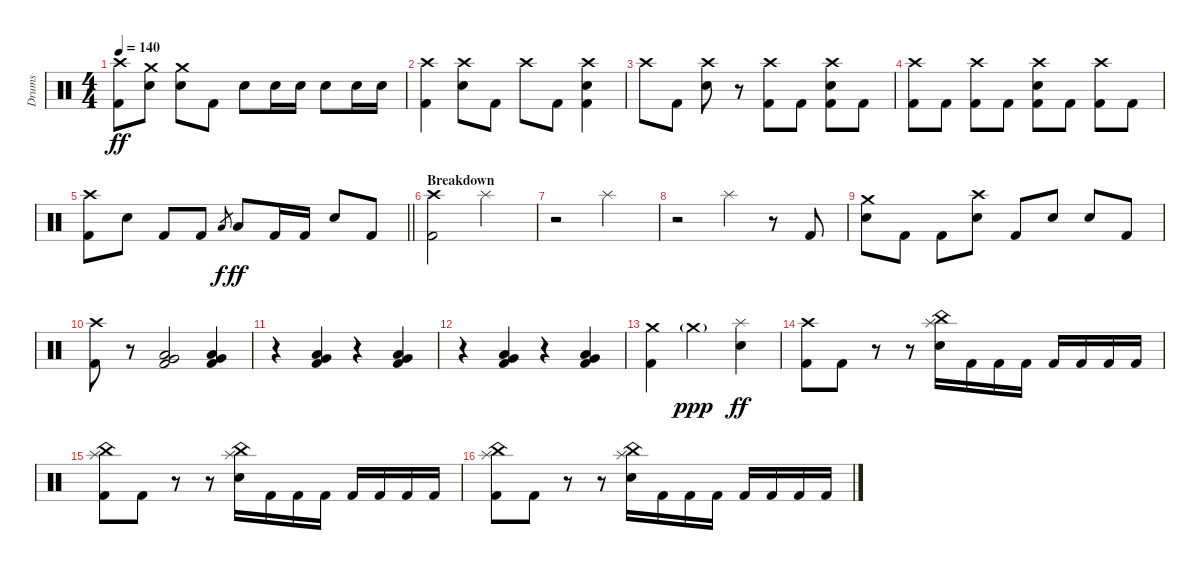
\track ("Drums" "Drums") {instrument percussion}
\staff {score}
\articulation defaults
\ts (4 4)
\tempo 140
\clef neutral
\ks c
("Crash high (hit)" "Kick (hit) 2").8{dy ff} ("Crash medium (hit)" "Electric Snare (hit)").8 ("Crash medium (hit)" "Electric Snare (hit)").8 "Kick (hit) 2".8 "Electric Snare (hit)".8 "Electric Snare (hit)".16 "Electric Snare (hit)".16 "Electric Snare (hit)".8 "Electric Snare (hit)".16 "Electric Snare (hit)".16 |
("Crash high (hit)" "Kick (hit) 2").4 ("Crash high (hit)" "Electric Snare (hit)").8 "Kick (hit) 2".8 "Crash high (hit)".8 "Kick (hit) 2".8 ("Crash high (hit)" "Electric Snare (hit)" "Kick (hit) 2").4 |
"Crash high (hit)".8 "Kick (hit) 2".8 ("Crash high (hit)" "Electric Snare (hit)").8 r.8 ("Crash high (hit)" "Kick (hit) 2").8 "Kick (hit) 2".8 ("Crash high (hit)" "Electric Snare (hit)" "Kick (hit) 2").8 "Kick (hit) 2".8 |
("Crash high (hit)" "Kick (hit) 2").8 "Kick (hit) 2".8 ("Crash high (hit)" "Kick (hit) 2").8 "Kick (hit) 2".8 ("Crash high (hit)" "Electric Snare (hit)" "Kick (hit) 2").8 "Kick (hit) 2".8 ("Crash high (hit)" "Kick (hit) 2").8 "Kick (hit) 2".8 |
\barLineRight lightlight
("Crash high (hit)" "Kick (hit) 2").8 "Electric Snare (hit)".8 "Kick (hit) 2".8 "Kick (hit) 2".8 "Low Tom (hit)".8{gr dy f} "Low Tom (hit)".8{dy ff} "Kick (hit) 2".16 "Kick (hit) 2".16 "Electric Snare (hit)".8 "Kick (hit) 2".8 |
\section ("" "Breakdown")
("Crash high (hit)" "Kick (hit) 2").2 "Splash (hit)".2 |
r.2 "Splash (hit)".2 |
r.2 "Splash (hit)".4 r.8 "Kick (hit) 2".8 |
("Crash medium (hit)" "Electric Snare (hit)").8 "Kick (hit) 2".8 "Kick (hit) 2".8 ("Crash high (hit)" "Electric Snare (hit)").8 "Kick (hit) 2".8 "Electric Snare (hit)".8 "Electric Snare (hit)".8 "Kick (hit) 2".8 |
("Crash high (hit)" "Kick (hit) 2").8 r.8 ("Low Floor Tom (hit)" "Very Low Tom (hit)" "Kick (hit) 2").2 ("Low Floor Tom (hit)" "Very Low Tom (hit)" "Kick (hit) 2").4 |
r.4 ("Low Floor Tom (hit)" "Very Low Tom (hit)" "Kick (hit) 2").4 r.4 ("Low Floor Tom (hit)" "Very Low Tom (hit)" "Kick (hit) 2").4 |
r.4 ("Low Floor Tom (hit)" "Very Low Tom (hit)" "Kick (hit) 2").4 r.4 ("Low Floor Tom (hit)" "Very Low Tom (hit)" "Kick (hit) 2").4 |
("Crash medium (hit)" "Kick (hit) 2").4 "Crash medium (hit)"{g}.2{dy ppp} ("Splash (hit)" "Electric Snare (hit)").4{dy ff} |
("Crash high (hit)" "Kick (hit) 2").8 "Kick (hit) 2".8 r.8 r.8 ("China (hit)" "Splash (hit)" "Electric Snare (hit)").16 "Kick (hit) 2".16 "Kick (hit) 2".16 "Kick (hit) 2".16 "Kick (hit) 2".16 "Kick (hit) 2".16 "Kick (hit) 2".16 "Kick (hit) 2".16 |
("China (hit)" "Splash (hit)" "Kick (hit) 2").8 "Kick (hit) 2".8 r.8 r.8 ("China (hit)" "Splash (hit)" "Electric Snare (hit)").16 "Kick (hit) 2".16 "Kick (hit) 2".16 "Kick (hit) 2".16 "Kick (hit) 2".16 "Kick (hit) 2".16 "Kick (hit) 2".16 "Kick (hit) 2".16 |
("China (hit)" "Splash (hit)" "Kick (hit) 2").8 "Kick (hit) 2".8 r.8 r.8 ("China (hit)" "Splash (hit)" "Electric Snare (hit)").16 "Kick (hit) 2".16 "Kick (hit) 2".16 "Kick (hit) 2".16 "Kick (hit) 2".16 "Kick (hit) 2".16 "Kick (hit) 2".16 "Kick (hit) 2".16
